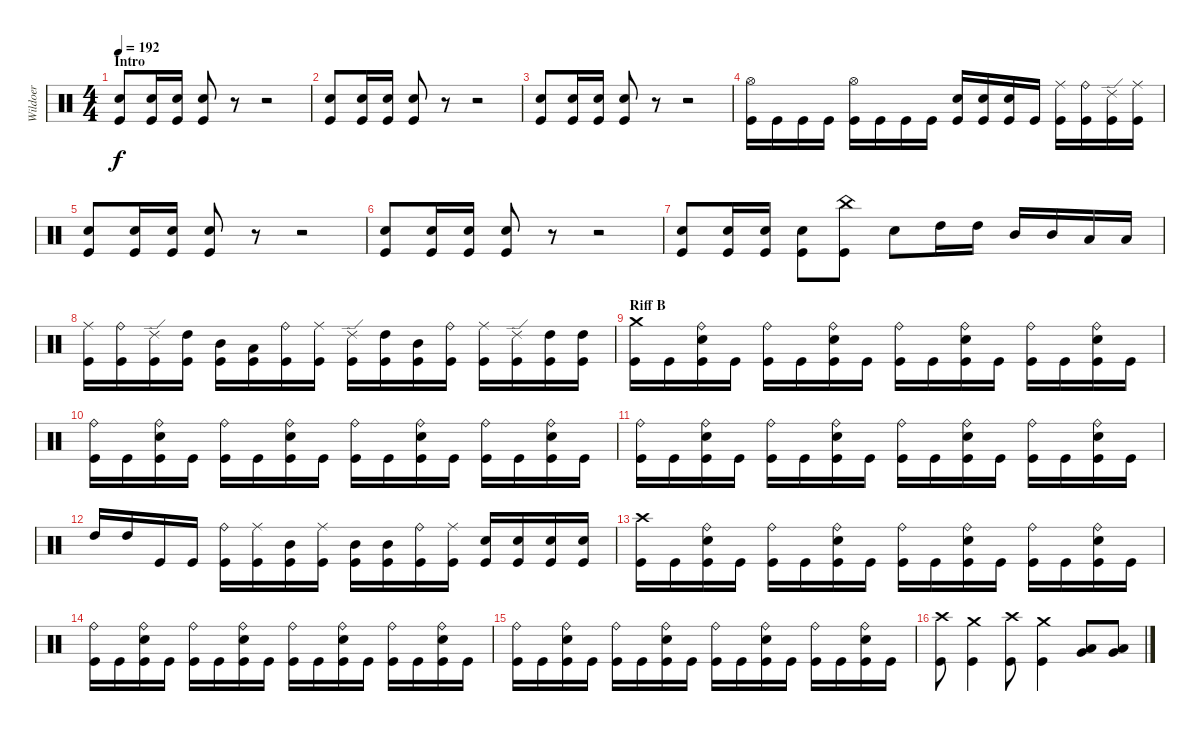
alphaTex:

\track ("Wildoer" "Wildoer") {instrument percussion}
\staff {score}
\articulation defaults
\ts (4 4)
\section ("" "Intro")
\tempo 192
\clef neutral
\ks c
("Electric Snare (hit)" "Kick (hit)").8{dy f} ("Electric Snare (hit)" "Kick (hit)").16 ("Electric Snare (hit)" "Kick (hit)").16 ("Electric Snare (hit)" "Kick (hit)").8 r.8 r.2 |
("Electric Snare (hit)" "Kick (hit)").8 ("Electric Snare (hit)" "Kick (hit)").16 ("Electric Snare (hit)" "Kick (hit)").16 ("Electric Snare (hit)" "Kick (hit)").8 r.8 r.2 |
("Electric Snare (hit)" "Kick (hit)").8 ("Electric Snare (hit)" "Kick (hit)").16 ("Electric Snare (hit)" "Kick (hit)").16 ("Electric Snare (hit)" "Kick (hit)").8 r.8 r.2 |
("Hi-Hat (open)" "Kick (hit)").16 "Kick (hit)".16 "Kick (hit)".16 "Kick (hit)".16 ("Hi-Hat (open)" "Kick (hit)").16 "Kick (hit)".16 "Kick (hit)".16 "Kick (hit)".16 ("Electric Snare (hit)" "Kick (hit)").16 ("Electric Snare (hit)" "Kick (hit)").16 ("Electric Snare (hit)" "Kick (hit)").16 "Kick (hit)".16 ("Ride (middle)" "Kick (hit)").16 ("Ride (bell)" "Kick (hit)").16 ("Ride (edge) 2" "Kick (hit)").16 ("Ride (middle)" "Kick (hit)").16 |
("Electric Snare (hit)" "Kick (hit)").8 ("Electric Snare (hit)" "Kick (hit)").16 ("Electric Snare (hit)" "Kick (hit)").16 ("Electric Snare (hit)" "Kick (hit)").8 r.8 r.2 |
("Electric Snare (hit)" "Kick (hit)").8 ("Electric Snare (hit)" "Kick (hit)").16 ("Electric Snare (hit)" "Kick (hit)").16 ("Electric Snare (hit)" "Kick (hit)").8 r.8 r.2 |
("Electric Snare (hit)" "Kick (hit)").8 ("Electric Snare (hit)" "Kick (hit)").16 ("Electric Snare (hit)" "Kick (hit)").16 ("Electric Snare (hit)" "Kick (hit)").8 ("China (hit)" "Kick (hit)").8 "Electric Snare (hit)".8 "High Tom (hit)".16 "High Tom (hit)".16 "Mid Tom (hit)".16 "Mid Tom (hit)".16 "Low Tom (hit)".16 "Low Tom (hit)".16 |
("Ride (middle)" "Kick (hit)").16 ("Ride (bell)" "Kick (hit)").16 ("Ride (edge) 2" "Kick (hit)").16 ("High Tom (hit)" "Kick (hit)").16 ("Mid Tom (hit)" "Kick (hit)").16 ("Low Tom (hit)" "Kick (hit)").16 ("Ride (bell)" "Kick (hit)").16 ("Ride (middle)" "Kick (hit)").16 ("Ride (edge) 2" "Kick (hit)").16 ("High Tom (hit)" "Kick (hit)").16 ("Mid Tom (hit)" "Kick (hit)").16 ("Ride (bell)" "Kick (hit)").16 ("Ride (middle)" "Kick (hit)").16 ("Ride (edge) 2" "Kick (hit)").16 ("High Tom (hit)" "Kick (hit)").16 ("High Tom (hit)" "Kick (hit)").16 |
\section ("" "Riff B")
("Crash medium (hit)" "Kick (hit)").16 "Kick (hit)".16 ("Ride (bell)" "Electric Snare (hit)" "Kick (hit)").16 "Kick (hit)".16 ("Ride (bell)" "Kick (hit)").16 "Kick (hit)".16 ("Ride (bell)" "Electric Snare (hit)" "Kick (hit)").16 "Kick (hit)".16 ("Ride (bell)" "Kick (hit)").16 "Kick (hit)".16 ("Ride (bell)" "Electric Snare (hit)" "Kick (hit)").16 "Kick (hit)".16 ("Ride (bell)" "Kick (hit)").16 "Kick (hit)".16 ("Ride (bell)" "Electric Snare (hit)" "Kick (hit)").16 "Kick (hit)".16 |
("Ride (bell)" "Kick (hit)").16 "Kick (hit)".16 ("Ride (bell)" "Electric Snare (hit)" "Kick (hit)").16 "Kick (hit)".16 ("Ride (bell)" "Kick (hit)").16 "Kick (hit)".16 ("Ride (bell)" "Electric Snare (hit)" "Kick (hit)").16 "Kick (hit)".16 ("Ride (bell)" "Kick (hit)").16 "Kick (hit)".16 ("Ride (bell)" "Electric Snare (hit)" "Kick (hit)").16 "Kick (hit)".16 ("Ride (bell)" "Kick (hit)").16 "Kick (hit)".16 ("Ride (bell)" "Electric Snare (hit)" "Kick (hit)").16 "Kick (hit)".16 |
("Ride (bell)" "Kick (hit)").16 "Kick (hit)".16 ("Ride (bell)" "Electric Snare (hit)" "Kick (hit)").16 "Kick (hit)".16 ("Ride (bell)" "Kick (hit)").16 "Kick (hit)".16 ("Ride (bell)" "Electric Snare (hit)" "Kick (hit)").16 "Kick (hit)".16 ("Ride (bell)" "Kick (hit)").16 "Kick (hit)".16 ("Ride (bell)" "Electric Snare (hit)" "Kick (hit)").16 "Kick (hit)".16 ("Ride (bell)" "Kick (hit)").16 "Kick (hit)".16 ("Ride (bell)" "Electric Snare (hit)" "Kick (hit)").16 "Kick (hit)".16 |
"High Tom (hit)".16 "High Tom (hit)".16 "Kick (hit)".16 "Kick (hit)".16 ("Ride (bell)" "Kick (hit)").16 ("Ride (middle)" "Kick (hit)").16 ("Mid Tom (hit)" "Kick (hit)").16 ("Ride (middle)" "Kick (hit)").16 ("Mid Tom (hit)" "Kick (hit)").16 ("Mid Tom (hit)" "Kick (hit)").16 ("Ride (bell)" "Kick (hit)").16 ("Ride (middle)" "Kick (hit)").16 ("Electric Snare (hit)" "Kick (hit)").16 ("Electric Snare (hit)" "Kick (hit)").16 ("Electric Snare (hit)" "Kick (hit)").16 ("Electric Snare (hit)" "Kick (hit)").16 |
("Crash high (hit)" "Kick (hit)").16 "Kick (hit)".16 ("Ride (bell)" "Electric Snare (hit)" "Kick (hit)").16 "Kick (hit)".16 ("Ride (bell)" "Kick (hit)").16 "Kick (hit)".16 ("Ride (bell)" "Electric Snare (hit)" "Kick (hit)").16 "Kick (hit)".16 ("Ride (bell)" "Kick (hit)").16 "Kick (hit)".16 ("Ride (bell)" "Electric Snare (hit)" "Kick (hit)").16 "Kick (hit)".16 ("Ride (bell)" "Kick (hit)").16 "Kick (hit)".16 ("Ride (bell)" "Electric Snare (hit)" "Kick (hit)").16 "Kick (hit)".16 |
("Ride (bell)" "Kick (hit)").16 "Kick (hit)".16 ("Ride (bell)" "Electric Snare (hit)" "Kick (hit)").16 "Kick (hit)".16 ("Ride (bell)" "Kick (hit)").16 "Kick (hit)".16 ("Ride (bell)" "Electric Snare (hit)" "Kick (hit)").16 "Kick (hit)".16 ("Ride (bell)" "Kick (hit)").16 "Kick (hit)".16 ("Ride (bell)" "Electric Snare (hit)" "Kick (hit)").16 "Kick (hit)".16 ("Ride (bell)" "Kick (hit)").16 "Kick (hit)".16 ("Ride (bell)" "Electric Snare (hit)" "Kick (hit)").16 "Kick (hit)".16 |
("Ride (bell)" "Kick (hit)").16 "Kick (hit)".16 ("Ride (bell)" "Electric Snare (hit)" "Kick (hit)").16 "Kick (hit)".16 ("Ride (bell)" "Kick (hit)").16 "Kick (hit)".16 ("Ride (bell)" "Electric Snare (hit)" "Kick (hit)").16 "Kick (hit)".16 ("Ride (bell)" "Kick (hit)").16 "Kick (hit)".16 ("Ride (bell)" "Electric Snare (hit)" "Kick (hit)").16 "Kick (hit)".16 ("Ride (bell)" "Kick (hit)").16 "Kick (hit)".16 ("Ride (bell)" "Electric Snare (hit)" "Kick (hit)").16 "Kick (hit)".16 |
("Crash high (hit)" "Kick (hit)").8 ("Crash medium (hit)" "Kick (hit)").4 ("Crash high (hit)" "Kick (hit)").8 ("Crash medium (hit)" "Kick (hit)").4 ("Very Low Tom (hit)" "Low Floor Tom (hit)").8 ("Very Low Tom (hit)" "Low Floor Tom (hit)").8
